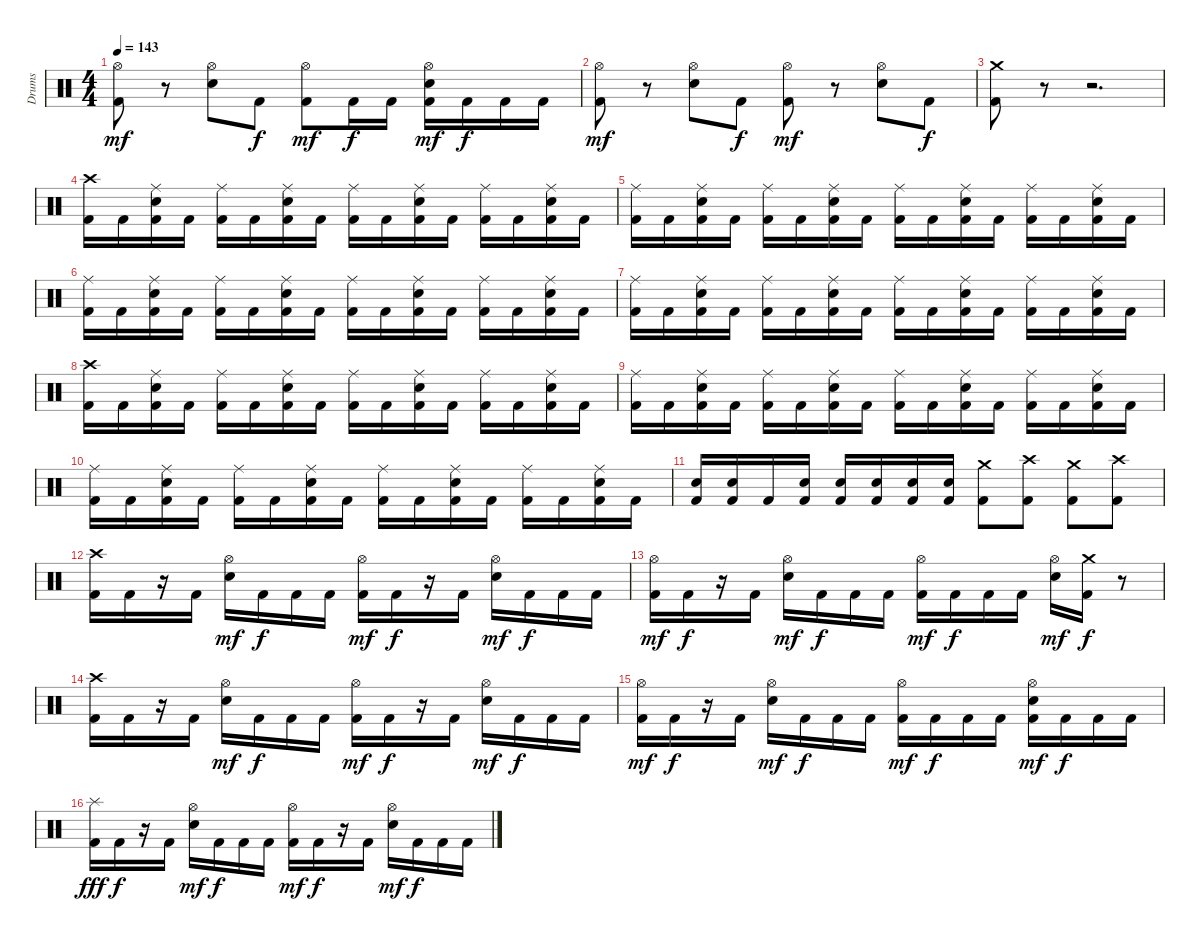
\track ("Drums" "Drums") {instrument percussion}
\staff {score}
\articulation defaults
\ts (4 4)
\tempo 143
\clef neutral
\ks c
("Hi-Hat (open)" "Kick (hit) 2").8{dy mf} r.8 ("Hi-Hat (open)" "Electric Snare (hit)").8 "Kick (hit) 2".8{dy f} ("Hi-Hat (open)" "Kick (hit) 2").8{dy mf} "Kick (hit) 2".16{dy f} "Kick (hit) 2".16 ("Hi-Hat (open)" "Electric Snare (hit)" "Kick (hit) 2").16{dy mf} "Kick (hit) 2".16{dy f} "Kick (hit) 2".16 "Kick (hit) 2".16 |
("Hi-Hat (open)" "Kick (hit) 2").8{dy mf} r.8 ("Hi-Hat (open)" "Electric Snare (hit)").8 "Kick (hit) 2".8{dy f} ("Hi-Hat (open)" "Kick (hit) 2").8{dy mf} r.8 ("Hi-Hat (open)" "Electric Snare (hit)").8 "Kick (hit) 2".8{dy f} |
("Crash medium (hit)" "Kick (hit) 2").8 r.8 r.2{d} |
("Crash high (hit)" "Kick (hit) 2").16 "Kick (hit) 2".16 ("Ride (middle)" "Electric Snare (hit)" "Kick (hit) 2").16 "Kick (hit) 2".16 ("Ride (middle)" "Kick (hit) 2").16 "Kick (hit) 2".16 ("Ride (middle)" "Electric Snare (hit)" "Kick (hit) 2").16 "Kick (hit) 2".16 ("Ride (middle)" "Kick (hit) 2").16 "Kick (hit) 2".16 ("Ride (middle)" "Electric Snare (hit)" "Kick (hit) 2").16 "Kick (hit) 2".16 ("Ride (middle)" "Kick (hit) 2").16 "Kick (hit) 2".16 ("Ride (middle)" "Electric Snare (hit)" "Kick (hit) 2").16 "Kick (hit) 2".16 |
("Ride (middle)" "Kick (hit) 2").16 "Kick (hit) 2".16 ("Ride (middle)" "Electric Snare (hit)" "Kick (hit) 2").16 "Kick (hit) 2".16 ("Ride (middle)" "Kick (hit) 2").16 "Kick (hit) 2".16 ("Ride (middle)" "Electric Snare (hit)" "Kick (hit) 2").16 "Kick (hit) 2".16 ("Ride (middle)" "Kick (hit) 2").16 "Kick (hit) 2".16 ("Ride (middle)" "Electric Snare (hit)" "Kick (hit) 2").16 "Kick (hit) 2".16 ("Ride (middle)" "Kick (hit) 2").16 "Kick (hit) 2".16 ("Ride (middle)" "Electric Snare (hit)" "Kick (hit) 2").16 "Kick (hit) 2".16 |
("Ride (middle)" "Kick (hit) 2").16 "Kick (hit) 2".16 ("Ride (middle)" "Electric Snare (hit)" "Kick (hit) 2").16 "Kick (hit) 2".16 ("Ride (middle)" "Kick (hit) 2").16 "Kick (hit) 2".16 ("Ride (middle)" "Electric Snare (hit)" "Kick (hit) 2").16 "Kick (hit) 2".16 ("Ride (middle)" "Kick (hit) 2").16 "Kick (hit) 2".16 ("Ride (middle)" "Electric Snare (hit)" "Kick (hit) 2").16 "Kick (hit) 2".16 ("Ride (middle)" "Kick (hit) 2").16 "Kick (hit) 2".16 ("Ride (middle)" "Electric Snare (hit)" "Kick (hit) 2").16 "Kick (hit) 2".16 |
("Ride (middle)" "Kick (hit) 2").16 "Kick (hit) 2".16 ("Ride (middle)" "Electric Snare (hit)" "Kick (hit) 2").16 "Kick (hit) 2".16 ("Ride (middle)" "Kick (hit) 2").16 "Kick (hit) 2".16 ("Ride (middle)" "Electric Snare (hit)" "Kick (hit) 2").16 "Kick (hit) 2".16 ("Ride (middle)" "Kick (hit) 2").16 "Kick (hit) 2".16 ("Ride (middle)" "Electric Snare (hit)" "Kick (hit) 2").16 "Kick (hit) 2".16 ("Ride (middle)" "Kick (hit) 2").16 "Kick (hit) 2".16 ("Ride (middle)" "Electric Snare (hit)" "Kick (hit) 2").16 "Kick (hit) 2".16 |
("Crash high (hit)" "Kick (hit) 2").16 "Kick (hit) 2".16 ("Ride (middle)" "Electric Snare (hit)" "Kick (hit) 2").16 "Kick (hit) 2".16 ("Ride (middle)" "Kick (hit) 2").16 "Kick (hit) 2".16 ("Ride (middle)" "Electric Snare (hit)" "Kick (hit) 2").16 "Kick (hit) 2".16 ("Ride (middle)" "Kick (hit) 2").16 "Kick (hit) 2".16 ("Ride (middle)" "Electric Snare (hit)" "Kick (hit) 2").16 "Kick (hit) 2".16 ("Ride (middle)" "Kick (hit) 2").16 "Kick (hit) 2".16 ("Ride (middle)" "Electric Snare (hit)" "Kick (hit) 2").16 "Kick (hit) 2".16 |
("Ride (middle)" "Kick (hit) 2").16 "Kick (hit) 2".16 ("Ride (middle)" "Electric Snare (hit)" "Kick (hit) 2").16 "Kick (hit) 2".16 ("Ride (middle)" "Kick (hit) 2").16 "Kick (hit) 2".16 ("Ride (middle)" "Electric Snare (hit)" "Kick (hit) 2").16 "Kick (hit) 2".16 ("Ride (middle)" "Kick (hit) 2").16 "Kick (hit) 2".16 ("Ride (middle)" "Electric Snare (hit)" "Kick (hit) 2").16 "Kick (hit) 2".16 ("Ride (middle)" "Kick (hit) 2").16 "Kick (hit) 2".16 ("Ride (middle)" "Electric Snare (hit)" "Kick (hit) 2").16 "Kick (hit) 2".16 |
("Ride (middle)" "Kick (hit) 2").16 "Kick (hit) 2".16 ("Ride (middle)" "Electric Snare (hit)" "Kick (hit) 2").16 "Kick (hit) 2".16 ("Ride (middle)" "Kick (hit) 2").16 "Kick (hit) 2".16 ("Ride (middle)" "Electric Snare (hit)" "Kick (hit) 2").16 "Kick (hit) 2".16 ("Ride (middle)" "Kick (hit) 2").16 "Kick (hit) 2".16 ("Ride (middle)" "Electric Snare (hit)" "Kick (hit) 2").16 "Kick (hit) 2".16 ("Ride (middle)" "Kick (hit) 2").16 "Kick (hit) 2".16 ("Ride (middle)" "Electric Snare (hit)" "Kick (hit) 2").16 "Kick (hit) 2".16 |
("Electric Snare (hit)" "Kick (hit) 2").16 ("Electric Snare (hit)" "Kick (hit) 2").16 "Kick (hit) 2".16 ("Electric Snare (hit)" "Kick (hit) 2").16 ("Electric Snare (hit)" "Kick (hit) 2").16 ("Electric Snare (hit)" "Kick (hit) 2").16 ("Electric Snare (hit)" "Kick (hit) 2").16 ("Electric Snare (hit)" "Kick (hit) 2").16 ("Crash medium (hit)" "Kick (hit) 2").8 ("Crash high (hit)" "Kick (hit) 2").8 ("Crash medium (hit)" "Kick (hit) 2").8 ("Crash high (hit)" "Kick (hit) 2").8 |
("Crash high (hit)" "Kick (hit) 2").16 "Kick (hit) 2".16 r.16 "Kick (hit) 2".16 ("Hi-Hat (open)" "Electric Snare (hit)").16{dy mf} "Kick (hit) 2".16{dy f} "Kick (hit) 2".16 "Kick (hit) 2".16 ("Hi-Hat (open)" "Kick (hit) 2").16{dy mf} "Kick (hit) 2".16{dy f} r.16 "Kick (hit) 2".16 ("Hi-Hat (open)" "Electric Snare (hit)").16{dy mf} "Kick (hit) 2".16{dy f} "Kick (hit) 2".16 "Kick (hit) 2".16 |
("Hi-Hat (open)" "Kick (hit) 2").16{dy mf} "Kick (hit) 2".16{dy f} r.16 "Kick (hit) 2".16 ("Hi-Hat (open)" "Electric Snare (hit)").16{dy mf} "Kick (hit) 2".16{dy f} "Kick (hit) 2".16 "Kick (hit) 2".16 ("Hi-Hat (open)" "Kick (hit) 2").16{dy mf} "Kick (hit) 2".16{dy f} "Kick (hit) 2".16 "Kick (hit) 2".16 ("Hi-Hat (open)" "Electric Snare (hit)").16{dy mf} ("Crash medium (hit)" "Kick (hit) 2").16{dy f} r.8 |
("Crash high (hit)" "Kick (hit) 2").16 "Kick (hit) 2".16 r.16 "Kick (hit) 2".16 ("Hi-Hat (open)" "Electric Snare (hit)").16{dy mf} "Kick (hit) 2".16{dy f} "Kick (hit) 2".16 "Kick (hit) 2".16 ("Hi-Hat (open)" "Kick (hit) 2").16{dy mf} "Kick (hit) 2".16{dy f} r.16 "Kick (hit) 2".16 ("Hi-Hat (open)" "Electric Snare (hit)").16{dy mf} "Kick (hit) 2".16{dy f} "Kick (hit) 2".16 "Kick (hit) 2".16 |
("Hi-Hat (open)" "Kick (hit) 2").16{dy mf} "Kick (hit) 2".16{dy f} r.16 "Kick (hit) 2".16 ("Hi-Hat (open)" "Electric Snare (hit)").16{dy mf} "Kick (hit) 2".16{dy f} "Kick (hit) 2".16 "Kick (hit) 2".16 ("Hi-Hat (open)" "Kick (hit) 2").16{dy mf} "Kick (hit) 2".16{dy f} "Kick (hit) 2".16 "Kick (hit) 2".16 ("Hi-Hat (open)" "Electric Snare (hit)" "Kick (hit) 2").16{dy mf} "Kick (hit) 2".16{dy f} "Kick (hit) 2".16 "Kick (hit) 2".16 |
("Splash (hit)" "Kick (hit) 2").16{dy fff} "Kick (hit) 2".16{dy f} r.16 "Kick (hit) 2".16 ("Hi-Hat (open)" "Electric Snare (hit)").16{dy mf} "Kick (hit) 2".16{dy f} "Kick (hit) 2".16 "Kick (hit) 2".16 ("Hi-Hat (open)" "Kick (hit) 2").16{dy mf} "Kick (hit) 2".16{dy f} r.16 "Kick (hit) 2".16 ("Hi-Hat (open)" "Electric Snare (hit)").16{dy mf} "Kick (hit) 2".16{dy f} "Kick (hit) 2".16 "Kick (hit) 2".16
